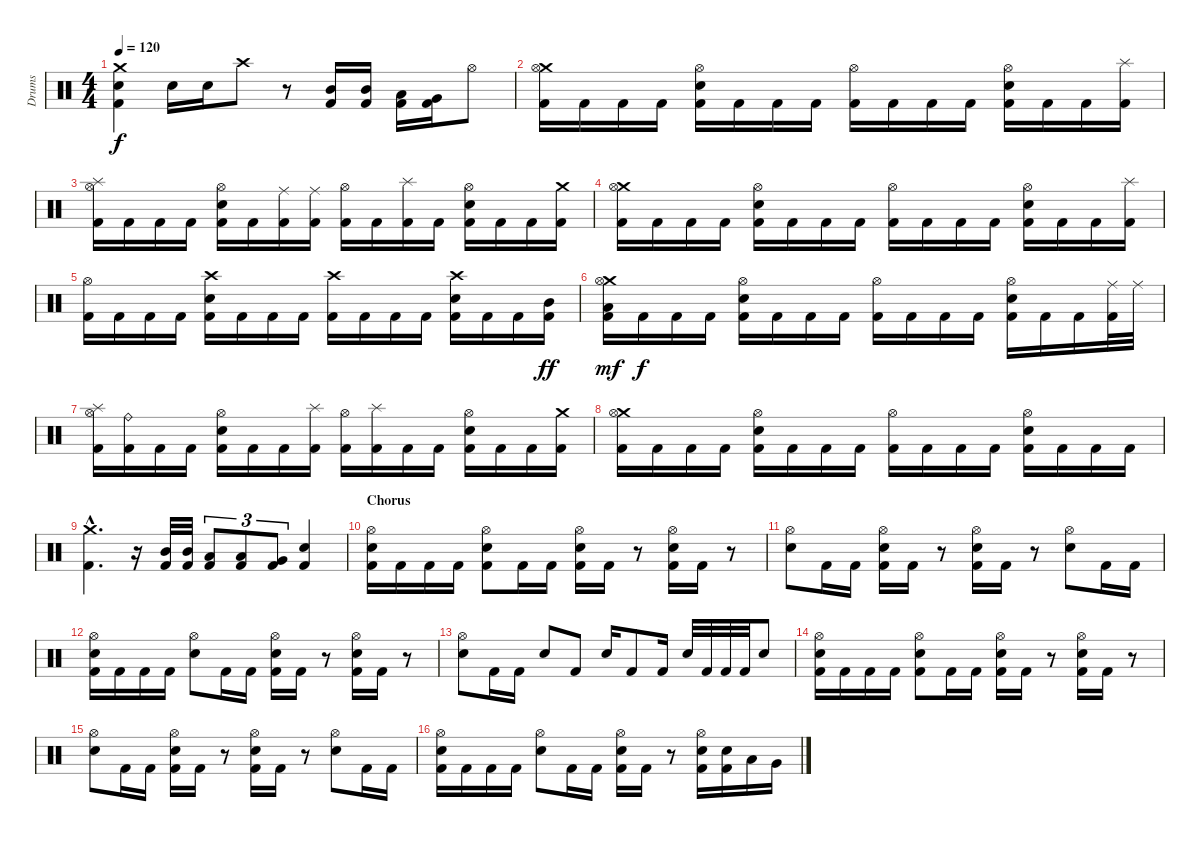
\track ("Drums" "Drums") {instrument percussion}
\staff {score}
\articulation defaults
\ts (4 4)
\tempo 120
\clef neutral
\ks c
("Crash medium (hit)" "Electric Snare (hit)" "Kick (hit) 2").4{dy f} "Electric Snare (hit)".16 "Electric Snare (hit)".16 "Crash high (hit)".8 r.8 ("Mid Tom (hit)" "Kick (hit) 2").16 ("Mid Tom (hit)" "Kick (hit) 2").16 ("Low Tom (hit)" "Kick (hit) 2").16 ("Very Low Tom (hit)" "Kick (hit) 2").16 "Hi-Hat (open)".8 |
("Crash medium (hit)" "Hi-Hat (open)" "Kick (hit) 2").16 "Kick (hit) 2".16 "Kick (hit) 2".16 "Kick (hit) 2".16 ("Hi-Hat (open)" "Electric Snare (hit)" "Kick (hit) 2").16 "Kick (hit) 2".16 "Kick (hit) 2".16 "Kick (hit) 2".16 ("Hi-Hat (open)" "Kick (hit) 2").16 "Kick (hit) 2".16 "Kick (hit) 2".16 "Kick (hit) 2".16 ("Hi-Hat (open)" "Electric Snare (hit)" "Kick (hit) 2").16 "Kick (hit) 2".16 "Kick (hit) 2".16 ("Splash (hit)" "Kick (hit) 2").16 |
("Splash (hit)" "Hi-Hat (open)" "Kick (hit) 2").16 "Kick (hit) 2".16 "Kick (hit) 2".16 "Kick (hit) 2".16 ("Hi-Hat (open)" "Electric Snare (hit)" "Kick (hit) 2").16 "Kick (hit) 2".16 ("Ride (middle)" "Kick (hit) 2").16 ("Ride (middle)" "Kick (hit) 2").16 ("Hi-Hat (open)" "Kick (hit) 2").16 "Kick (hit) 2".16 ("Splash (hit)" "Kick (hit) 2").16 "Kick (hit) 2".16 ("Hi-Hat (open)" "Electric Snare (hit)" "Kick (hit) 2").16 "Kick (hit) 2".16 "Kick (hit) 2".16 ("Crash medium (hit)" "Kick (hit) 2").16 |
("Crash medium (hit)" "Hi-Hat (open)" "Kick (hit) 2").16 "Kick (hit) 2".16 "Kick (hit) 2".16 "Kick (hit) 2".16 ("Hi-Hat (open)" "Electric Snare (hit)" "Kick (hit) 2").16 "Kick (hit) 2".16 "Kick (hit) 2".16 "Kick (hit) 2".16 ("Hi-Hat (open)" "Kick (hit) 2").16 "Kick (hit) 2".16 "Kick (hit) 2".16 "Kick (hit) 2".16 ("Hi-Hat (open)" "Electric Snare (hit)" "Kick (hit) 2").16 "Kick (hit) 2".16 "Kick (hit) 2".16 ("Splash (hit)" "Kick (hit) 2").16 |
("Hi-Hat (open)" "Kick (hit) 2").16 "Kick (hit) 2".16 "Kick (hit) 2".16 "Kick (hit) 2".16 ("Crash high (hit)" "Electric Snare (hit)" "Kick (hit) 2").16 "Kick (hit) 2".16 "Kick (hit) 2".16 "Kick (hit) 2".16 ("Crash high (hit)" "Kick (hit) 2").16 "Kick (hit) 2".16 "Kick (hit) 2".16 "Kick (hit) 2".16 ("Crash high (hit)" "Electric Snare (hit)" "Kick (hit) 2").16 "Kick (hit) 2".16 "Kick (hit) 2".16 ("Mid Tom (hit)" "Kick (hit) 2").16{dy ff} |
("Crash medium (hit)" "Hi-Hat (open)" "Low Tom (hit)" "Kick (hit) 2").16{dy mf} "Kick (hit) 2".16{dy f} "Kick (hit) 2".16 "Kick (hit) 2".16 ("Hi-Hat (open)" "Electric Snare (hit)" "Kick (hit) 2").16 "Kick (hit) 2".16 "Kick (hit) 2".16 "Kick (hit) 2".16 ("Hi-Hat (open)" "Kick (hit) 2").16 "Kick (hit) 2".16 "Kick (hit) 2".16 "Kick (hit) 2".16 ("Hi-Hat (open)" "Electric Snare (hit)" "Kick (hit) 2").16 "Kick (hit) 2".16 "Kick (hit) 2".16 ("Ride (middle)" "Kick (hit) 2").32 "Ride (middle)".32 |
("Splash (hit)" "Hi-Hat (open)" "Kick (hit) 2").16 ("Ride (bell)" "Kick (hit) 2").16 "Kick (hit) 2".16 "Kick (hit) 2".16 ("Hi-Hat (open)" "Electric Snare (hit)" "Kick (hit) 2").16 "Kick (hit) 2".16 "Kick (hit) 2".16 ("Splash (hit)" "Kick (hit) 2").16 ("Hi-Hat (open)" "Kick (hit) 2").16 ("Splash (hit)" "Kick (hit) 2").16 "Kick (hit) 2".16 "Kick (hit) 2".16 ("Hi-Hat (open)" "Electric Snare (hit)" "Kick (hit) 2").16 "Kick (hit) 2".16 "Kick (hit) 2".16 ("Crash medium (hit)" "Kick (hit) 2").16 |
("Crash medium (hit)" "Hi-Hat (open)" "Kick (hit) 2").16 "Kick (hit) 2".16 "Kick (hit) 2".16 "Kick (hit) 2".16 ("Hi-Hat (open)" "Electric Snare (hit)" "Kick (hit) 2").16 "Kick (hit) 2".16 "Kick (hit) 2".16 "Kick (hit) 2".16 ("Hi-Hat (open)" "Kick (hit) 2").16 "Kick (hit) 2".16 "Kick (hit) 2".16 "Kick (hit) 2".16 ("Hi-Hat (open)" "Electric Snare (hit)" "Kick (hit) 2").16 "Kick (hit) 2".16 "Kick (hit) 2".16 "Kick (hit) 2".16 |
("Crash medium (hit)"{hac} "Kick (hit) 2"{hac}).4{d} r.16 ("Mid Tom (hit)" "Kick (hit) 2").32 ("Mid Tom (hit)" "Kick (hit) 2").32 ("Low Tom (hit)" "Kick (hit) 2").8{tu (3 2)} ("Low Tom (hit)" "Kick (hit) 2").8{tu (3 2)} ("Very Low Tom (hit)" "Kick (hit) 2").8{tu (3 2)} ("Electric Snare (hit)" "Kick (hit) 2").4 |
\section ("" "Chorus")
("Hi-Hat (open)" "Electric Snare (hit)" "Kick (hit) 2").16 "Kick (hit) 2".16 "Kick (hit) 2".16 "Kick (hit) 2".16 ("Hi-Hat (open)" "Electric Snare (hit)" "Kick (hit) 2").8 "Kick (hit) 2".16 "Kick (hit) 2".16 ("Hi-Hat (open)" "Electric Snare (hit)" "Kick (hit) 2").16 "Kick (hit) 2".16 r.8 ("Hi-Hat (open)" "Electric Snare (hit)" "Kick (hit) 2").16 "Kick (hit) 2".16 r.8 |
("Hi-Hat (open)" "Electric Snare (hit)").8 "Kick (hit) 2".16 "Kick (hit) 2".16 ("Hi-Hat (open)" "Electric Snare (hit)" "Kick (hit) 2").16 "Kick (hit) 2".16 r.8 ("Hi-Hat (open)" "Electric Snare (hit)" "Kick (hit) 2").16 "Kick (hit) 2".16 r.8 ("Hi-Hat (open)" "Electric Snare (hit)").8 "Kick (hit) 2".16 "Kick (hit) 2".16 |
("Hi-Hat (open)" "Electric Snare (hit)" "Kick (hit) 2").16 "Kick (hit) 2".16 "Kick (hit) 2".16 "Kick (hit) 2".16 ("Hi-Hat (open)" "Electric Snare (hit)").8 "Kick (hit) 2".16 "Kick (hit) 2".16 ("Hi-Hat (open)" "Electric Snare (hit)" "Kick (hit) 2").16 "Kick (hit) 2".16 r.8 ("Hi-Hat (open)" "Electric Snare (hit)" "Kick (hit) 2").16 "Kick (hit) 2".16 r.8 |
("Hi-Hat (open)" "Electric Snare (hit)").8 "Kick (hit) 2".16 "Kick (hit) 2".16 "Electric Snare (hit)".8 "Kick (hit) 2".8 "Electric Snare (hit)".16 "Kick (hit) 2".8 "Kick (hit) 2".16 "Electric Snare (hit)".32 "Kick (hit) 2".32 "Kick (hit) 2".32 "Kick (hit) 2".32 "Electric Snare (hit)".8 |
("Hi-Hat (open)" "Electric Snare (hit)" "Kick (hit) 2").16 "Kick (hit) 2".16 "Kick (hit) 2".16 "Kick (hit) 2".16 ("Hi-Hat (open)" "Electric Snare (hit)" "Kick (hit) 2").8 "Kick (hit) 2".16 "Kick (hit) 2".16 ("Hi-Hat (open)" "Electric Snare (hit)" "Kick (hit) 2").16 "Kick (hit) 2".16 r.8 ("Hi-Hat (open)" "Electric Snare (hit)" "Kick (hit) 2").16 "Kick (hit) 2".16 r.8 |
("Hi-Hat (open)" "Electric Snare (hit)").8 "Kick (hit) 2".16 "Kick (hit) 2".16 ("Hi-Hat (open)" "Electric Snare (hit)" "Kick (hit) 2").16 "Kick (hit) 2".16 r.8 ("Hi-Hat (open)" "Electric Snare (hit)" "Kick (hit) 2").16 "Kick (hit) 2".16 r.8 ("Hi-Hat (open)" "Electric Snare (hit)").8 "Kick (hit) 2".16 "Kick (hit) 2".16 |
("Hi-Hat (open)" "Electric Snare (hit)" "Kick (hit) 2").16 "Kick (hit) 2".16 "Kick (hit) 2".16 "Kick (hit) 2".16 ("Hi-Hat (open)" "Electric Snare (hit)").8 "Kick (hit) 2".16 "Kick (hit) 2".16 ("Hi-Hat (open)" "Electric Snare (hit)" "Kick (hit) 2").16 "Kick (hit) 2".16 r.8 ("Hi-Hat (open)" "Electric Snare (hit)" "Kick (hit) 2").16 ("Electric Snare (hit)" "Kick (hit) 2").16 "Low Tom (hit)".16 "Very Low Tom (hit)".16
